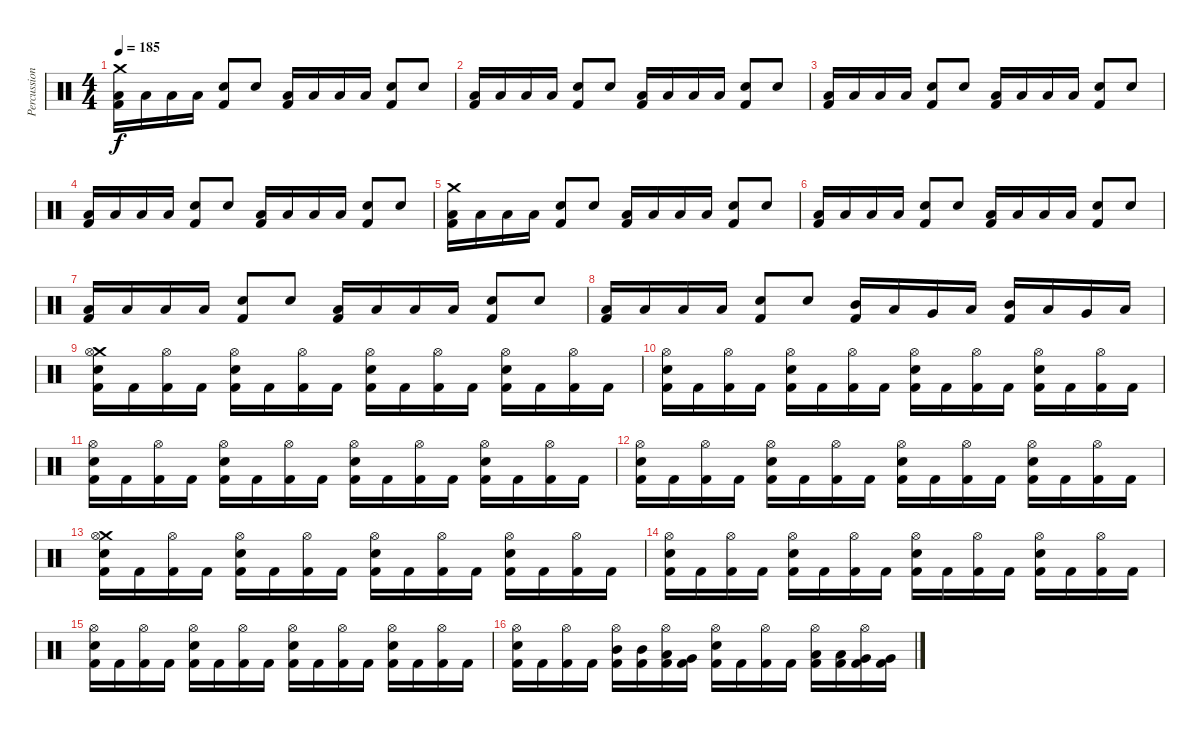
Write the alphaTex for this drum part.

\track ("Percussion" "Percussion") {instrument percussion}
\staff {score}
\articulation defaults
\ts (4 4)
\tempo 185
\clef neutral
\ks c
("Crash medium (hit)" "Low Floor Tom (hit)" "Kick (hit) 2").16{dy f} "Low Floor Tom (hit)".16 "Low Floor Tom (hit)".16 "Low Floor Tom (hit)".16 ("Electric Snare (hit)" "Kick (hit) 2").8 "Electric Snare (hit)".8 ("Low Floor Tom (hit)" "Kick (hit) 2").16 "Low Floor Tom (hit)".16 "Low Floor Tom (hit)".16 "Low Floor Tom (hit)".16 ("Electric Snare (hit)" "Kick (hit) 2").8 "Electric Snare (hit)".8 |
("Low Floor Tom (hit)" "Kick (hit) 2").16 "Low Floor Tom (hit)".16 "Low Floor Tom (hit)".16 "Low Floor Tom (hit)".16 ("Electric Snare (hit)" "Kick (hit) 2").8 "Electric Snare (hit)".8 ("Low Floor Tom (hit)" "Kick (hit) 2").16 "Low Floor Tom (hit)".16 "Low Floor Tom (hit)".16 "Low Floor Tom (hit)".16 ("Electric Snare (hit)" "Kick (hit) 2").8 "Electric Snare (hit)".8 |
("Low Floor Tom (hit)" "Kick (hit) 2").16 "Low Floor Tom (hit)".16 "Low Floor Tom (hit)".16 "Low Floor Tom (hit)".16 ("Electric Snare (hit)" "Kick (hit) 2").8 "Electric Snare (hit)".8 ("Low Floor Tom (hit)" "Kick (hit) 2").16 "Low Floor Tom (hit)".16 "Low Floor Tom (hit)".16 "Low Floor Tom (hit)".16 ("Electric Snare (hit)" "Kick (hit) 2").8 "Electric Snare (hit)".8 |
("Low Floor Tom (hit)" "Kick (hit) 2").16 "Low Floor Tom (hit)".16 "Low Floor Tom (hit)".16 "Low Floor Tom (hit)".16 ("Electric Snare (hit)" "Kick (hit) 2").8 "Electric Snare (hit)".8 ("Low Floor Tom (hit)" "Kick (hit) 2").16 "Low Floor Tom (hit)".16 "Low Floor Tom (hit)".16 "Low Floor Tom (hit)".16 ("Electric Snare (hit)" "Kick (hit) 2").8 "Electric Snare (hit)".8 |
("Crash medium (hit)" "Low Floor Tom (hit)" "Kick (hit) 2").16 "Low Floor Tom (hit)".16 "Low Floor Tom (hit)".16 "Low Floor Tom (hit)".16 ("Electric Snare (hit)" "Kick (hit) 2").8 "Electric Snare (hit)".8 ("Low Floor Tom (hit)" "Kick (hit) 2").16 "Low Floor Tom (hit)".16 "Low Floor Tom (hit)".16 "Low Floor Tom (hit)".16 ("Electric Snare (hit)" "Kick (hit) 2").8 "Electric Snare (hit)".8 |
("Low Floor Tom (hit)" "Kick (hit) 2").16 "Low Floor Tom (hit)".16 "Low Floor Tom (hit)".16 "Low Floor Tom (hit)".16 ("Electric Snare (hit)" "Kick (hit) 2").8 "Electric Snare (hit)".8 ("Low Floor Tom (hit)" "Kick (hit) 2").16 "Low Floor Tom (hit)".16 "Low Floor Tom (hit)".16 "Low Floor Tom (hit)".16 ("Electric Snare (hit)" "Kick (hit) 2").8 "Electric Snare (hit)".8 |
("Low Floor Tom (hit)" "Kick (hit) 2").16 "Low Floor Tom (hit)".16 "Low Floor Tom (hit)".16 "Low Floor Tom (hit)".16 ("Electric Snare (hit)" "Kick (hit) 2").8 "Electric Snare (hit)".8 ("Low Floor Tom (hit)" "Kick (hit) 2").16 "Low Floor Tom (hit)".16 "Low Floor Tom (hit)".16 "Low Floor Tom (hit)".16 ("Electric Snare (hit)" "Kick (hit) 2").8 "Electric Snare (hit)".8 |
("Low Floor Tom (hit)" "Kick (hit) 2").16 "Low Floor Tom (hit)".16 "Low Floor Tom (hit)".16 "Low Floor Tom (hit)".16 ("Electric Snare (hit)" "Kick (hit) 2").8 "Electric Snare (hit)".8 ("Mid Tom (hit)" "Kick (hit) 2").16 "Low Tom (hit)".16 "Very Low Tom (hit)".16 "Low Floor Tom (hit)".16 ("Mid Tom (hit)" "Kick (hit) 2").16 "Low Tom (hit)".16 "Very Low Tom (hit)".16 "Low Floor Tom (hit)".16 |
("Crash medium (hit)" "Hi-Hat (open)" "Electric Snare (hit)" "Kick (hit) 2").16 "Kick (hit) 2".16 ("Hi-Hat (open)" "Kick (hit) 2").16 "Kick (hit) 2".16 ("Hi-Hat (open)" "Electric Snare (hit)" "Kick (hit) 2").16 "Kick (hit) 2".16 ("Hi-Hat (open)" "Kick (hit) 2").16 "Kick (hit) 2".16 ("Hi-Hat (open)" "Electric Snare (hit)" "Kick (hit) 2").16 "Kick (hit) 2".16 ("Hi-Hat (open)" "Kick (hit) 2").16 "Kick (hit) 2".16 ("Hi-Hat (open)" "Electric Snare (hit)" "Kick (hit) 2").16 "Kick (hit) 2".16 ("Hi-Hat (open)" "Kick (hit) 2").16 "Kick (hit) 2".16 |
("Hi-Hat (open)" "Electric Snare (hit)" "Kick (hit) 2").16 "Kick (hit) 2".16 ("Hi-Hat (open)" "Kick (hit) 2").16 "Kick (hit) 2".16 ("Hi-Hat (open)" "Electric Snare (hit)" "Kick (hit) 2").16 "Kick (hit) 2".16 ("Hi-Hat (open)" "Kick (hit) 2").16 "Kick (hit) 2".16 ("Hi-Hat (open)" "Electric Snare (hit)" "Kick (hit) 2").16 "Kick (hit) 2".16 ("Hi-Hat (open)" "Kick (hit) 2").16 "Kick (hit) 2".16 ("Hi-Hat (open)" "Electric Snare (hit)" "Kick (hit) 2").16 "Kick (hit) 2".16 ("Hi-Hat (open)" "Kick (hit) 2").16 "Kick (hit) 2".16 |
("Hi-Hat (open)" "Electric Snare (hit)" "Kick (hit) 2").16 "Kick (hit) 2".16 ("Hi-Hat (open)" "Kick (hit) 2").16 "Kick (hit) 2".16 ("Hi-Hat (open)" "Electric Snare (hit)" "Kick (hit) 2").16 "Kick (hit) 2".16 ("Hi-Hat (open)" "Kick (hit) 2").16 "Kick (hit) 2".16 ("Hi-Hat (open)" "Electric Snare (hit)" "Kick (hit) 2").16 "Kick (hit) 2".16 ("Hi-Hat (open)" "Kick (hit) 2").16 "Kick (hit) 2".16 ("Hi-Hat (open)" "Electric Snare (hit)" "Kick (hit) 2").16 "Kick (hit) 2".16 ("Hi-Hat (open)" "Kick (hit) 2").16 "Kick (hit) 2".16 |
("Hi-Hat (open)" "Electric Snare (hit)" "Kick (hit) 2").16 "Kick (hit) 2".16 ("Hi-Hat (open)" "Kick (hit) 2").16 "Kick (hit) 2".16 ("Hi-Hat (open)" "Electric Snare (hit)" "Kick (hit) 2").16 "Kick (hit) 2".16 ("Hi-Hat (open)" "Kick (hit) 2").16 "Kick (hit) 2".16 ("Hi-Hat (open)" "Electric Snare (hit)" "Kick (hit) 2").16 "Kick (hit) 2".16 ("Hi-Hat (open)" "Kick (hit) 2").16 "Kick (hit) 2".16 ("Hi-Hat (open)" "Electric Snare (hit)" "Kick (hit) 2").16 "Kick (hit) 2".16 ("Hi-Hat (open)" "Kick (hit) 2").16 "Kick (hit) 2".16 |
("Crash medium (hit)" "Hi-Hat (open)" "Electric Snare (hit)" "Kick (hit) 2").16 "Kick (hit) 2".16 ("Hi-Hat (open)" "Kick (hit) 2").16 "Kick (hit) 2".16 ("Hi-Hat (open)" "Electric Snare (hit)" "Kick (hit) 2").16 "Kick (hit) 2".16 ("Hi-Hat (open)" "Kick (hit) 2").16 "Kick (hit) 2".16 ("Hi-Hat (open)" "Electric Snare (hit)" "Kick (hit) 2").16 "Kick (hit) 2".16 ("Hi-Hat (open)" "Kick (hit) 2").16 "Kick (hit) 2".16 ("Hi-Hat (open)" "Electric Snare (hit)" "Kick (hit) 2").16 "Kick (hit) 2".16 ("Hi-Hat (open)" "Kick (hit) 2").16 "Kick (hit) 2".16 |
("Hi-Hat (open)" "Electric Snare (hit)" "Kick (hit) 2").16 "Kick (hit) 2".16 ("Hi-Hat (open)" "Kick (hit) 2").16 "Kick (hit) 2".16 ("Hi-Hat (open)" "Electric Snare (hit)" "Kick (hit) 2").16 "Kick (hit) 2".16 ("Hi-Hat (open)" "Kick (hit) 2").16 "Kick (hit) 2".16 ("Hi-Hat (open)" "Electric Snare (hit)" "Kick (hit) 2").16 "Kick (hit) 2".16 ("Hi-Hat (open)" "Kick (hit) 2").16 "Kick (hit) 2".16 ("Hi-Hat (open)" "Electric Snare (hit)" "Kick (hit) 2").16 "Kick (hit) 2".16 ("Hi-Hat (open)" "Kick (hit) 2").16 "Kick (hit) 2".16 |
("Hi-Hat (open)" "Electric Snare (hit)" "Kick (hit) 2").16 "Kick (hit) 2".16 ("Hi-Hat (open)" "Kick (hit) 2").16 "Kick (hit) 2".16 ("Hi-Hat (open)" "Electric Snare (hit)" "Kick (hit) 2").16 "Kick (hit) 2".16 ("Hi-Hat (open)" "Kick (hit) 2").16 "Kick (hit) 2".16 ("Hi-Hat (open)" "Electric Snare (hit)" "Kick (hit) 2").16 "Kick (hit) 2".16 ("Hi-Hat (open)" "Kick (hit) 2").16 "Kick (hit) 2".16 ("Hi-Hat (open)" "Electric Snare (hit)" "Kick (hit) 2").16 "Kick (hit) 2".16 ("Hi-Hat (open)" "Kick (hit) 2").16 "Kick (hit) 2".16 |
("Hi-Hat (open)" "Electric Snare (hit)" "Kick (hit) 2").16 "Kick (hit) 2".16 ("Hi-Hat (open)" "Kick (hit) 2").16 "Kick (hit) 2".16 ("Hi-Hat (open)" "Mid Tom (hit)" "Kick (hit) 2").16 ("Mid Tom (hit)" "Kick (hit) 2").16 ("Hi-Hat (open)" "Low Tom (hit)" "Kick (hit) 2").16 ("Very Low Tom (hit)" "Kick (hit) 2").16 ("Hi-Hat (open)" "Electric Snare (hit)" "Kick (hit) 2").16 "Kick (hit) 2".16 ("Hi-Hat (open)" "Kick (hit) 2").16 "Kick (hit) 2".16 ("Hi-Hat (open)" "Low Tom (hit)" "Kick (hit) 2").16 ("Low Tom (hit)" "Kick (hit) 2").16 ("Hi-Hat (open)" "Very Low Tom (hit)" "Kick (hit) 2").16 ("Very Low Tom (hit)" "Kick (hit) 2").16
